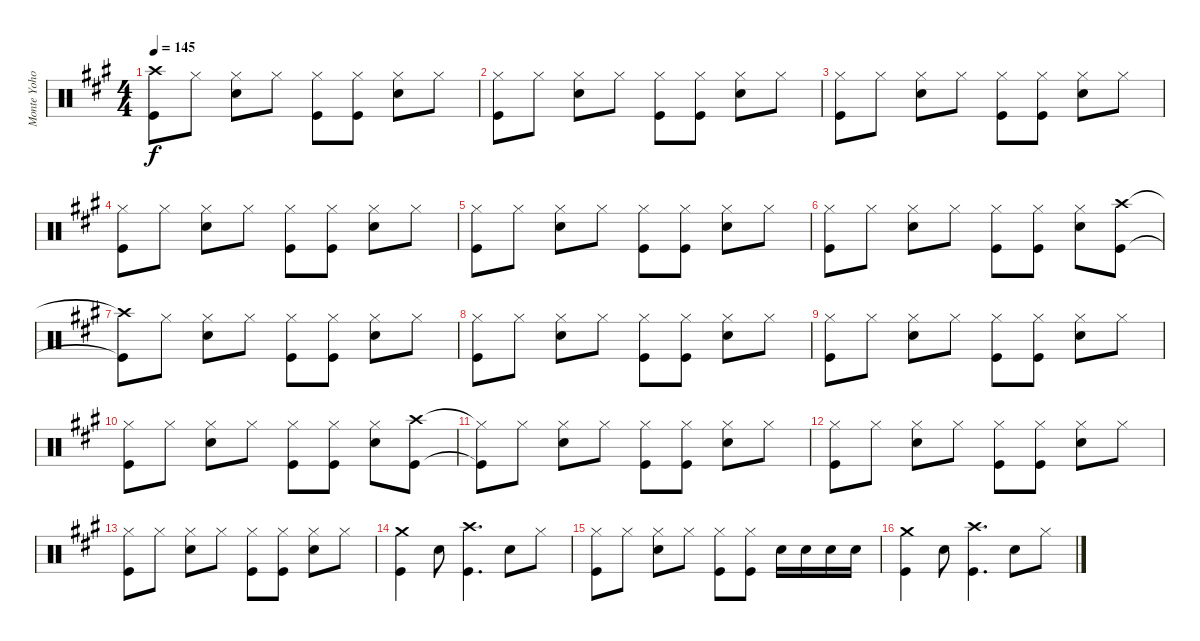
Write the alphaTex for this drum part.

\track ("Monte Yoho Drums" "Monte Yoho") {instrument percussion}
\staff {score}
\articulation defaults
\ts (4 4)
\tempo 145
\clef neutral
\ks a
("Crash high (hit)"{t} "Kick (hit)"{t}).8{dy f} "Hi-Hat (closed)".8 ("Hi-Hat (closed)" "Snare (hit) 2").8 "Hi-Hat (closed)".8 ("Hi-Hat (closed)" "Kick (hit)").8 ("Hi-Hat (closed)" "Kick (hit)").8 ("Hi-Hat (closed)" "Snare (hit) 2").8 "Hi-Hat (closed)".8 |
("Hi-Hat (closed)" "Kick (hit)").8 "Hi-Hat (closed)".8 ("Hi-Hat (closed)" "Snare (hit) 2").8 "Hi-Hat (closed)".8 ("Hi-Hat (closed)" "Kick (hit)").8 ("Hi-Hat (closed)" "Kick (hit)").8 ("Hi-Hat (closed)" "Snare (hit) 2").8 "Hi-Hat (closed)".8 |
("Hi-Hat (closed)" "Kick (hit)").8 "Hi-Hat (closed)".8 ("Hi-Hat (closed)" "Snare (hit) 2").8 "Hi-Hat (closed)".8 ("Hi-Hat (closed)" "Kick (hit)").8 ("Hi-Hat (closed)" "Kick (hit)").8 ("Hi-Hat (closed)" "Snare (hit) 2").8 "Hi-Hat (closed)".8 |
("Hi-Hat (closed)" "Kick (hit)").8 "Hi-Hat (closed)".8 ("Hi-Hat (closed)" "Snare (hit) 2").8 "Hi-Hat (closed)".8 ("Hi-Hat (closed)" "Kick (hit)").8 ("Hi-Hat (closed)" "Kick (hit)").8 ("Hi-Hat (closed)" "Snare (hit) 2").8 "Hi-Hat (closed)".8 |
("Hi-Hat (closed)" "Kick (hit)").8 "Hi-Hat (closed)".8 ("Hi-Hat (closed)" "Snare (hit) 2").8 "Hi-Hat (closed)".8 ("Hi-Hat (closed)" "Kick (hit)").8 ("Hi-Hat (closed)" "Kick (hit)").8 ("Hi-Hat (closed)" "Snare (hit) 2").8 "Hi-Hat (closed)".8 |
("Hi-Hat (closed)" "Kick (hit)").8 "Hi-Hat (closed)".8 ("Hi-Hat (closed)" "Snare (hit) 2").8 "Hi-Hat (closed)".8 ("Hi-Hat (closed)" "Kick (hit)").8 ("Hi-Hat (closed)" "Kick (hit)").8 ("Hi-Hat (closed)" "Snare (hit) 2").8 ("Crash high (hit)" "Kick (hit)").8 |
("Crash high (hit)"{t} "Kick (hit)"{t}).8 "Hi-Hat (closed)".8 ("Hi-Hat (closed)" "Snare (hit) 2").8 "Hi-Hat (closed)".8 ("Hi-Hat (closed)" "Kick (hit)").8 ("Hi-Hat (closed)" "Kick (hit)").8 ("Hi-Hat (closed)" "Snare (hit) 2").8 "Hi-Hat (closed)".8 |
("Hi-Hat (closed)" "Kick (hit)").8 "Hi-Hat (closed)".8 ("Hi-Hat (closed)" "Snare (hit) 2").8 "Hi-Hat (closed)".8 ("Hi-Hat (closed)" "Kick (hit)").8 ("Hi-Hat (closed)" "Kick (hit)").8 ("Hi-Hat (closed)" "Snare (hit) 2").8 "Hi-Hat (closed)".8 |
("Hi-Hat (closed)" "Kick (hit)").8 "Hi-Hat (closed)".8 ("Hi-Hat (closed)" "Snare (hit) 2").8 "Hi-Hat (closed)".8 ("Hi-Hat (closed)" "Kick (hit)").8 ("Hi-Hat (closed)" "Kick (hit)").8 ("Hi-Hat (closed)" "Snare (hit) 2").8 "Hi-Hat (closed)".8 |
("Hi-Hat (closed)" "Kick (hit)").8 "Hi-Hat (closed)".8 ("Hi-Hat (closed)" "Snare (hit) 2").8 "Hi-Hat (closed)".8 ("Hi-Hat (closed)" "Kick (hit)").8 ("Hi-Hat (closed)" "Kick (hit)").8 ("Hi-Hat (closed)" "Snare (hit) 2").8 ("Crash high (hit)" "Kick (hit)").8 |
("Hi-Hat (closed)"{t} "Kick (hit)"{t}).8 "Hi-Hat (closed)".8 ("Hi-Hat (closed)" "Snare (hit) 2").8 "Hi-Hat (closed)".8 ("Hi-Hat (closed)" "Kick (hit)").8 ("Hi-Hat (closed)" "Kick (hit)").8 ("Hi-Hat (closed)" "Snare (hit) 2").8 "Hi-Hat (closed)".8 |
("Hi-Hat (closed)" "Kick (hit)").8 "Hi-Hat (closed)".8 ("Hi-Hat (closed)" "Snare (hit) 2").8 "Hi-Hat (closed)".8 ("Hi-Hat (closed)" "Kick (hit)").8 ("Hi-Hat (closed)" "Kick (hit)").8 ("Hi-Hat (closed)" "Snare (hit) 2").8 "Hi-Hat (closed)".8 |
("Hi-Hat (closed)" "Kick (hit)").8 "Hi-Hat (closed)".8 ("Hi-Hat (closed)" "Snare (hit) 2").8 "Hi-Hat (closed)".8 ("Hi-Hat (closed)" "Kick (hit)").8 ("Hi-Hat (closed)" "Kick (hit)").8 ("Hi-Hat (closed)" "Snare (hit) 2").8 "Hi-Hat (closed)".8 |
("Crash medium (hit)" "Kick (hit)").4 "Snare (hit) 2".8 ("Crash high (hit)" "Kick (hit)").4{d} "Snare (hit) 2".8 "Hi-Hat (closed)".8 |
("Hi-Hat (closed)" "Kick (hit)").8 "Hi-Hat (closed)".8 ("Hi-Hat (closed)" "Snare (hit) 2").8 "Hi-Hat (closed)".8 ("Hi-Hat (closed)" "Kick (hit)").8 ("Hi-Hat (closed)" "Kick (hit)").8 "Snare (hit) 2".16 "Snare (hit) 2".16 "Snare (hit) 2".16 "Snare (hit) 2".16 |
("Crash medium (hit)" "Kick (hit)").4 "Snare (hit) 2".8 ("Crash high (hit)" "Kick (hit)").4{d} "Snare (hit) 2".8 "Hi-Hat (closed)".8
